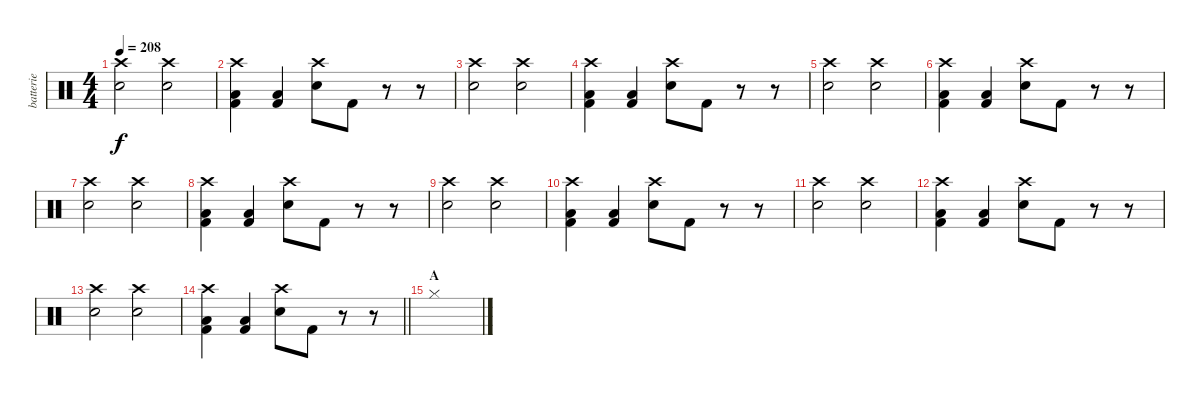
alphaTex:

\track ("batterie" "batterie") {instrument percussion}
\staff {score}
\articulation defaults
\ts (4 4)
\tempo 208
\clef neutral
\ks c
("Snare (hit) 2" "Crash high (hit)").2{dy f} ("Snare (hit) 2" "Crash high (hit)").2 |
("Low Floor Tom (hit)" "Crash high (hit)" "Kick (hit) 2").4 ("Low Floor Tom (hit)" "Kick (hit) 2").4 ("Crash high (hit)" "Electric Snare (hit)").8 "Kick (hit) 2".8 r.8 r.8 |
("Snare (hit) 2" "Crash high (hit)").2 ("Snare (hit) 2" "Crash high (hit)").2 |
("Low Floor Tom (hit)" "Crash high (hit)" "Kick (hit) 2").4 ("Low Floor Tom (hit)" "Kick (hit) 2").4 ("Crash high (hit)" "Electric Snare (hit)").8 "Kick (hit) 2".8 r.8 r.8 |
("Snare (hit) 2" "Crash high (hit)").2 ("Snare (hit) 2" "Crash high (hit)").2 |
("Low Floor Tom (hit)" "Crash high (hit)" "Kick (hit) 2").4 ("Low Floor Tom (hit)" "Kick (hit) 2").4 ("Crash high (hit)" "Electric Snare (hit)").8 "Kick (hit) 2".8 r.8 r.8 |
("Snare (hit) 2" "Crash high (hit)").2 ("Snare (hit) 2" "Crash high (hit)").2 |
("Low Floor Tom (hit)" "Crash high (hit)" "Kick (hit) 2").4 ("Low Floor Tom (hit)" "Kick (hit) 2").4 ("Crash high (hit)" "Electric Snare (hit)").8 "Kick (hit) 2".8 r.8 r.8 |
("Snare (hit) 2" "Crash high (hit)").2 ("Snare (hit) 2" "Crash high (hit)").2 |
("Low Floor Tom (hit)" "Crash high (hit)" "Kick (hit) 2").4 ("Low Floor Tom (hit)" "Kick (hit) 2").4 ("Crash high (hit)" "Electric Snare (hit)").8 "Kick (hit) 2".8 r.8 r.8 |
("Snare (hit) 2" "Crash high (hit)").2 ("Snare (hit) 2" "Crash high (hit)").2 |
("Low Floor Tom (hit)" "Crash high (hit)" "Kick (hit) 2").4 ("Low Floor Tom (hit)" "Kick (hit) 2").4 ("Crash high (hit)" "Electric Snare (hit)").8 "Kick (hit) 2".8 r.8 r.8 |
("Snare (hit) 2" "Crash high (hit)").2 ("Snare (hit) 2" "Crash high (hit)").2 |
\barLineRight lightlight
("Low Floor Tom (hit)" "Crash high (hit)" "Kick (hit) 2").4 ("Low Floor Tom (hit)" "Kick (hit) 2").4 ("Crash high (hit)" "Electric Snare (hit)").8 "Kick (hit) 2".8 r.8 r.8 |
\section ("" "A")
"Hi-Hat (closed)".1
